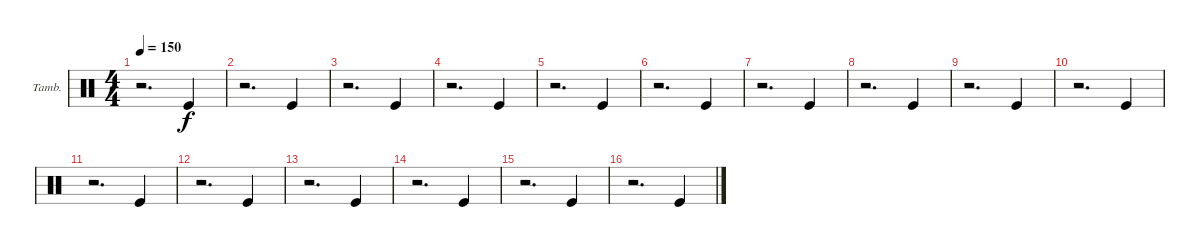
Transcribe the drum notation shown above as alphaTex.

\defaultSystemsLayout 4
\bracketExtendMode groupsimilarinstruments
\firstSystemTrackNameOrientation horizontal
\otherSystemsTrackNameOrientation horizontal
\track ("Tambourine" "Tamb.") {instrument percussion}
\staff {score}
\articulation defaults
\ts (4 4)
\tempo 150
\clef neutral
\ks c
r.2{d dy f} "Kick (hit)".4 |
r.2{d} "Kick (hit)".4 |
r.2{d} "Kick (hit)".4 |
r.2{d} "Kick (hit)".4 |
r.2{d} "Kick (hit)".4 |
r.2{d} "Kick (hit)".4 |
r.2{d} "Kick (hit)".4 |
r.2{d} "Kick (hit)".4 |
r.2{d} "Kick (hit)".4 |
r.2{d} "Kick (hit)".4 |
r.2{d} "Kick (hit)".4 |
r.2{d} "Kick (hit)".4 |
r.2{d} "Kick (hit)".4 |
r.2{d} "Kick (hit)".4 |
r.2{d} "Kick (hit)".4 |
r.2{d} "Kick (hit)".4
